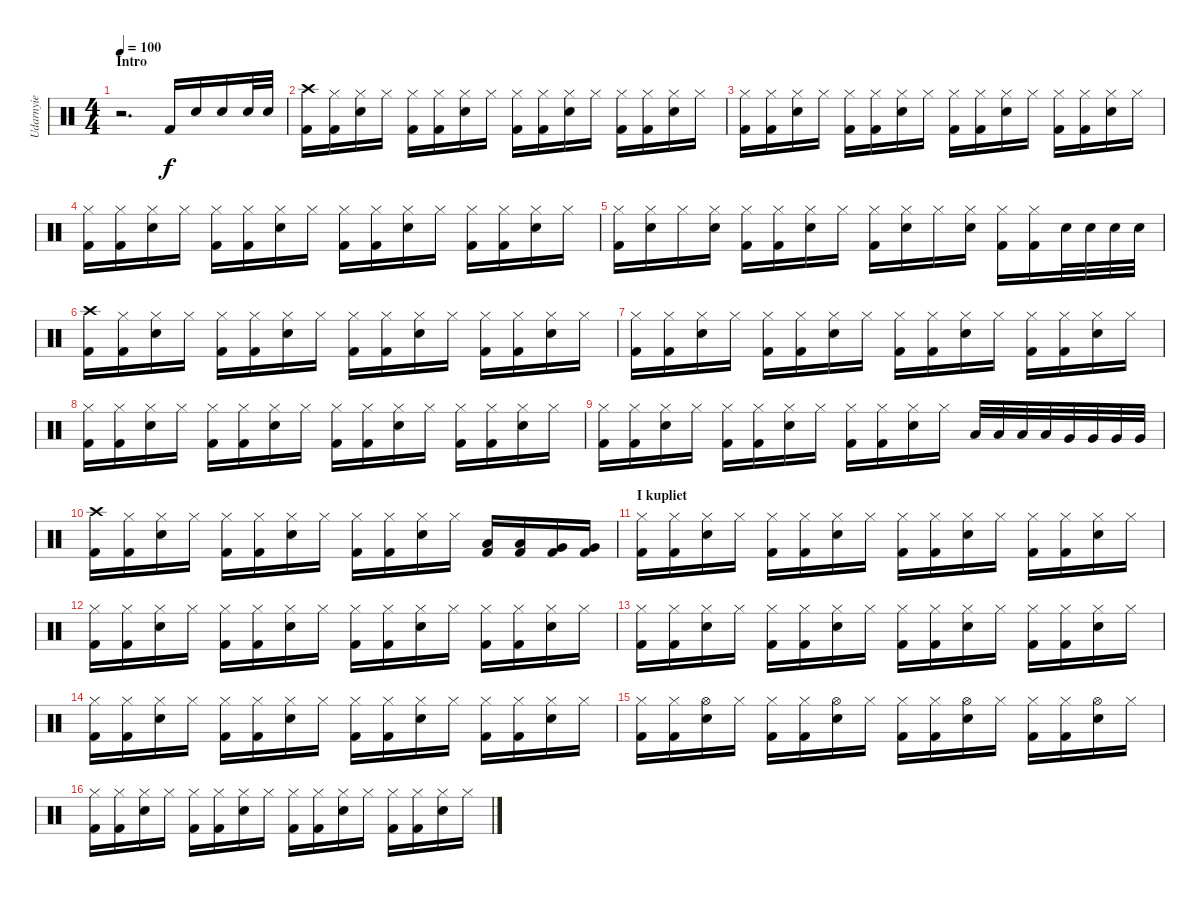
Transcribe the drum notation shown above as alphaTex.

\track ("Udarnyie" "Udarnyie") {instrument percussion}
\staff {score}
\articulation defaults
\ts (4 4)
\section ("" "Intro")
\tempo 100
\clef neutral
\ks c
r.2{d dy f} "Kick (hit) 2".16 "Electric Snare (hit)".16 "Electric Snare (hit)".16 "Electric Snare (hit)".32 "Electric Snare (hit)".32 |
("Crash high (hit)" "Kick (hit) 2").16 ("Hi-Hat (closed)" "Kick (hit) 2").16 ("Hi-Hat (closed)" "Snare (hit) 2").16 "Hi-Hat (closed)".16 ("Hi-Hat (closed)" "Kick (hit) 2").16 ("Hi-Hat (closed)" "Kick (hit) 2").16 ("Hi-Hat (closed)" "Snare (hit) 2").16 "Hi-Hat (closed)".16 ("Hi-Hat (closed)" "Kick (hit) 2").16 ("Hi-Hat (closed)" "Kick (hit) 2").16 ("Hi-Hat (closed)" "Snare (hit) 2").16 "Hi-Hat (closed)".16 ("Hi-Hat (closed)" "Kick (hit) 2").16 ("Hi-Hat (closed)" "Kick (hit) 2").16 ("Hi-Hat (closed)" "Snare (hit) 2").16 "Hi-Hat (closed)".16 |
("Hi-Hat (closed)" "Kick (hit) 2").16 ("Hi-Hat (closed)" "Kick (hit) 2").16 ("Hi-Hat (closed)" "Snare (hit) 2").16 "Hi-Hat (closed)".16 ("Hi-Hat (closed)" "Kick (hit) 2").16 ("Hi-Hat (closed)" "Kick (hit) 2").16 ("Hi-Hat (closed)" "Snare (hit) 2").16 "Hi-Hat (closed)".16 ("Hi-Hat (closed)" "Kick (hit) 2").16 ("Hi-Hat (closed)" "Kick (hit) 2").16 ("Hi-Hat (closed)" "Snare (hit) 2").16 "Hi-Hat (closed)".16 ("Hi-Hat (closed)" "Kick (hit) 2").16 ("Hi-Hat (closed)" "Kick (hit) 2").16 ("Hi-Hat (closed)" "Snare (hit) 2").16 "Hi-Hat (closed)".16 |
("Hi-Hat (closed)" "Kick (hit) 2").16 ("Hi-Hat (closed)" "Kick (hit) 2").16 ("Hi-Hat (closed)" "Snare (hit) 2").16 "Hi-Hat (closed)".16 ("Hi-Hat (closed)" "Kick (hit) 2").16 ("Hi-Hat (closed)" "Kick (hit) 2").16 ("Hi-Hat (closed)" "Snare (hit) 2").16 "Hi-Hat (closed)".16 ("Hi-Hat (closed)" "Kick (hit) 2").16 ("Hi-Hat (closed)" "Kick (hit) 2").16 ("Hi-Hat (closed)" "Snare (hit) 2").16 "Hi-Hat (closed)".16 ("Hi-Hat (closed)" "Kick (hit) 2").16 ("Hi-Hat (closed)" "Kick (hit) 2").16 ("Hi-Hat (closed)" "Snare (hit) 2").16 "Hi-Hat (closed)".16 |
("Hi-Hat (closed)" "Kick (hit) 2").16 ("Hi-Hat (closed)" "Snare (hit) 2").16 "Hi-Hat (closed)".16 ("Hi-Hat (closed)" "Snare (hit) 2").16 ("Hi-Hat (closed)" "Kick (hit) 2").16 ("Hi-Hat (closed)" "Kick (hit) 2").16 ("Hi-Hat (closed)" "Snare (hit) 2").16 "Hi-Hat (closed)".16 ("Hi-Hat (closed)" "Kick (hit) 2").16 ("Hi-Hat (closed)" "Snare (hit) 2").16 "Hi-Hat (closed)".16 ("Hi-Hat (closed)" "Electric Snare (hit)").16 ("Hi-Hat (closed)" "Kick (hit) 2").16 ("Hi-Hat (closed)" "Kick (hit) 2").16 "Electric Snare (hit)".32 "Electric Snare (hit)".32 "Electric Snare (hit)".32 "Electric Snare (hit)".32 |
("Crash high (hit)" "Kick (hit) 2").16 ("Hi-Hat (closed)" "Kick (hit) 2").16 ("Hi-Hat (closed)" "Snare (hit) 2").16 "Hi-Hat (closed)".16 ("Hi-Hat (closed)" "Kick (hit) 2").16 ("Hi-Hat (closed)" "Kick (hit) 2").16 ("Hi-Hat (closed)" "Snare (hit) 2").16 "Hi-Hat (closed)".16 ("Hi-Hat (closed)" "Kick (hit) 2").16 ("Hi-Hat (closed)" "Kick (hit) 2").16 ("Hi-Hat (closed)" "Snare (hit) 2").16 "Hi-Hat (closed)".16 ("Hi-Hat (closed)" "Kick (hit) 2").16 ("Hi-Hat (closed)" "Kick (hit) 2").16 ("Hi-Hat (closed)" "Snare (hit) 2").16 "Hi-Hat (closed)".16 |
("Hi-Hat (closed)" "Kick (hit) 2").16 ("Hi-Hat (closed)" "Kick (hit) 2").16 ("Hi-Hat (closed)" "Snare (hit) 2").16 "Hi-Hat (closed)".16 ("Hi-Hat (closed)" "Kick (hit) 2").16 ("Hi-Hat (closed)" "Kick (hit) 2").16 ("Hi-Hat (closed)" "Snare (hit) 2").16 "Hi-Hat (closed)".16 ("Hi-Hat (closed)" "Kick (hit) 2").16 ("Hi-Hat (closed)" "Kick (hit) 2").16 ("Hi-Hat (closed)" "Snare (hit) 2").16 "Hi-Hat (closed)".16 ("Hi-Hat (closed)" "Kick (hit) 2").16 ("Hi-Hat (closed)" "Kick (hit) 2").16 ("Hi-Hat (closed)" "Snare (hit) 2").16 "Hi-Hat (closed)".16 |
("Hi-Hat (closed)" "Kick (hit) 2").16 ("Hi-Hat (closed)" "Kick (hit) 2").16 ("Hi-Hat (closed)" "Snare (hit) 2").16 "Hi-Hat (closed)".16 ("Hi-Hat (closed)" "Kick (hit) 2").16 ("Hi-Hat (closed)" "Kick (hit) 2").16 ("Hi-Hat (closed)" "Snare (hit) 2").16 "Hi-Hat (closed)".16 ("Hi-Hat (closed)" "Kick (hit) 2").16 ("Hi-Hat (closed)" "Kick (hit) 2").16 ("Hi-Hat (closed)" "Snare (hit) 2").16 "Hi-Hat (closed)".16 ("Hi-Hat (closed)" "Kick (hit) 2").16 ("Hi-Hat (closed)" "Kick (hit) 2").16 ("Hi-Hat (closed)" "Snare (hit) 2").16 "Hi-Hat (closed)".16 |
("Hi-Hat (closed)" "Kick (hit) 2").16 ("Hi-Hat (closed)" "Kick (hit) 2").16 ("Hi-Hat (closed)" "Snare (hit) 2").16 "Hi-Hat (closed)".16 ("Hi-Hat (closed)" "Kick (hit) 2").16 ("Hi-Hat (closed)" "Kick (hit) 2").16 ("Hi-Hat (closed)" "Snare (hit) 2").16 "Hi-Hat (closed)".16 ("Hi-Hat (closed)" "Kick (hit) 2").16 ("Hi-Hat (closed)" "Kick (hit) 2").16 ("Hi-Hat (closed)" "Snare (hit) 2").16 "Hi-Hat (closed)".16 "Low Tom (hit)".32 "Low Tom (hit)".32 "Low Tom (hit)".32 "Low Tom (hit)".32 "Very Low Tom (hit)".32 "Very Low Tom (hit)".32 "Very Low Tom (hit)".32 "Very Low Tom (hit)".32 |
("Crash high (hit)" "Kick (hit) 2").16 ("Hi-Hat (closed)" "Kick (hit) 2").16 ("Hi-Hat (closed)" "Snare (hit) 2").16 "Hi-Hat (closed)".16 ("Hi-Hat (closed)" "Kick (hit) 2").16 ("Hi-Hat (closed)" "Kick (hit) 2").16 ("Hi-Hat (closed)" "Snare (hit) 2").16 "Hi-Hat (closed)".16 ("Hi-Hat (closed)" "Kick (hit) 2").16 ("Hi-Hat (closed)" "Kick (hit) 2").16 ("Hi-Hat (closed)" "Snare (hit) 2").16 "Hi-Hat (closed)".16 ("Kick (hit) 2" "Low Tom (hit)").16 ("Kick (hit) 2" "Low Tom (hit)").16 ("Kick (hit) 2" "Very Low Tom (hit)").16 ("Kick (hit) 2" "Very Low Tom (hit)").16 |
\section ("" "I kupliet")
("Hi-Hat (closed)" "Kick (hit) 2").16 ("Hi-Hat (closed)" "Kick (hit) 2").16 ("Hi-Hat (closed)" "Snare (hit) 2").16 "Hi-Hat (closed)".16 ("Hi-Hat (closed)" "Kick (hit) 2").16 ("Hi-Hat (closed)" "Kick (hit) 2").16 ("Hi-Hat (closed)" "Snare (hit) 2").16 "Hi-Hat (closed)".16 ("Hi-Hat (closed)" "Kick (hit) 2").16 ("Hi-Hat (closed)" "Kick (hit) 2").16 ("Hi-Hat (closed)" "Snare (hit) 2").16 "Hi-Hat (closed)".16 ("Hi-Hat (closed)" "Kick (hit) 2").16 ("Hi-Hat (closed)" "Kick (hit) 2").16 ("Hi-Hat (closed)" "Snare (hit) 2").16 "Hi-Hat (closed)".16 |
("Hi-Hat (closed)" "Kick (hit) 2").16 ("Hi-Hat (closed)" "Kick (hit) 2").16 ("Hi-Hat (closed)" "Snare (hit) 2").16 "Hi-Hat (closed)".16 ("Hi-Hat (closed)" "Kick (hit) 2").16 ("Hi-Hat (closed)" "Kick (hit) 2").16 ("Hi-Hat (closed)" "Snare (hit) 2").16 "Hi-Hat (closed)".16 ("Hi-Hat (closed)" "Kick (hit) 2").16 ("Hi-Hat (closed)" "Kick (hit) 2").16 ("Hi-Hat (closed)" "Snare (hit) 2").16 "Hi-Hat (closed)".16 ("Hi-Hat (closed)" "Kick (hit) 2").16 ("Hi-Hat (closed)" "Kick (hit) 2").16 ("Hi-Hat (closed)" "Snare (hit) 2").16 "Hi-Hat (closed)".16 |
("Hi-Hat (closed)" "Kick (hit) 2").16 ("Hi-Hat (closed)" "Kick (hit) 2").16 ("Hi-Hat (closed)" "Snare (hit) 2").16 "Hi-Hat (closed)".16 ("Hi-Hat (closed)" "Kick (hit) 2").16 ("Hi-Hat (closed)" "Kick (hit) 2").16 ("Hi-Hat (closed)" "Snare (hit) 2").16 "Hi-Hat (closed)".16 ("Hi-Hat (closed)" "Kick (hit) 2").16 ("Hi-Hat (closed)" "Kick (hit) 2").16 ("Hi-Hat (closed)" "Snare (hit) 2").16 "Hi-Hat (closed)".16 ("Hi-Hat (closed)" "Kick (hit) 2").16 ("Hi-Hat (closed)" "Kick (hit) 2").16 ("Hi-Hat (closed)" "Snare (hit) 2").16 "Hi-Hat (closed)".16 |
("Hi-Hat (closed)" "Kick (hit) 2").16 ("Hi-Hat (closed)" "Kick (hit) 2").16 ("Hi-Hat (closed)" "Snare (hit) 2").16 "Hi-Hat (closed)".16 ("Hi-Hat (closed)" "Kick (hit) 2").16 ("Hi-Hat (closed)" "Kick (hit) 2").16 ("Hi-Hat (closed)" "Snare (hit) 2").16 "Hi-Hat (closed)".16 ("Hi-Hat (closed)" "Kick (hit) 2").16 ("Hi-Hat (closed)" "Kick (hit) 2").16 ("Hi-Hat (closed)" "Snare (hit) 2").16 "Hi-Hat (closed)".16 ("Hi-Hat (closed)" "Kick (hit) 2").16 ("Hi-Hat (closed)" "Kick (hit) 2").16 ("Hi-Hat (closed)" "Snare (hit) 2").16 "Hi-Hat (closed)".16 |
("Hi-Hat (closed)" "Kick (hit) 2").16 ("Hi-Hat (closed)" "Kick (hit) 2").16 ("Hi-Hat (open)" "Snare (hit) 2").16 "Hi-Hat (closed)".16 ("Hi-Hat (closed)" "Kick (hit) 2").16 ("Hi-Hat (closed)" "Kick (hit) 2").16 ("Hi-Hat (open)" "Snare (hit) 2").16 "Hi-Hat (closed)".16 ("Hi-Hat (closed)" "Kick (hit) 2").16 ("Hi-Hat (closed)" "Kick (hit) 2").16 ("Hi-Hat (open)" "Snare (hit) 2").16 "Hi-Hat (closed)".16 ("Hi-Hat (closed)" "Kick (hit) 2").16 ("Hi-Hat (closed)" "Kick (hit) 2").16 ("Hi-Hat (open)" "Snare (hit) 2").16 "Hi-Hat (closed)".16 |
("Hi-Hat (closed)" "Kick (hit) 2").16 ("Hi-Hat (closed)" "Kick (hit) 2").16 ("Hi-Hat (closed)" "Snare (hit) 2").16 "Hi-Hat (closed)".16 ("Hi-Hat (closed)" "Kick (hit) 2").16 ("Hi-Hat (closed)" "Kick (hit) 2").16 ("Hi-Hat (closed)" "Snare (hit) 2").16 "Hi-Hat (closed)".16 ("Hi-Hat (closed)" "Kick (hit) 2").16 ("Hi-Hat (closed)" "Kick (hit) 2").16 ("Hi-Hat (closed)" "Snare (hit) 2").16 "Hi-Hat (closed)".16 ("Hi-Hat (closed)" "Kick (hit) 2").16 ("Hi-Hat (closed)" "Kick (hit) 2").16 ("Hi-Hat (closed)" "Snare (hit) 2").16 "Hi-Hat (closed)".16
